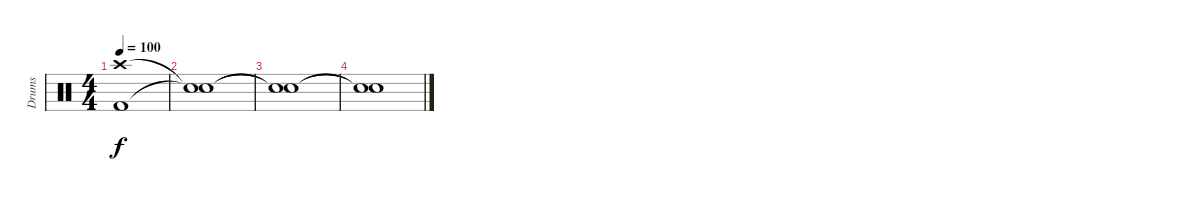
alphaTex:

\track ("Drums" "Drums") {instrument percussion}
\staff {score}
\articulation defaults
\ts (4 4)
\tempo 100
\clef neutral
\ks c
("Crash high (hit)" "Kick (hit) 2").1{dy f} |
("Snare (hit)"{t} "Snare (hit)"{t}).1 |
("Snare (hit)"{t} "Snare (hit)"{t}).1 |
("Snare (hit)"{t} "Snare (hit)"{t}).1
